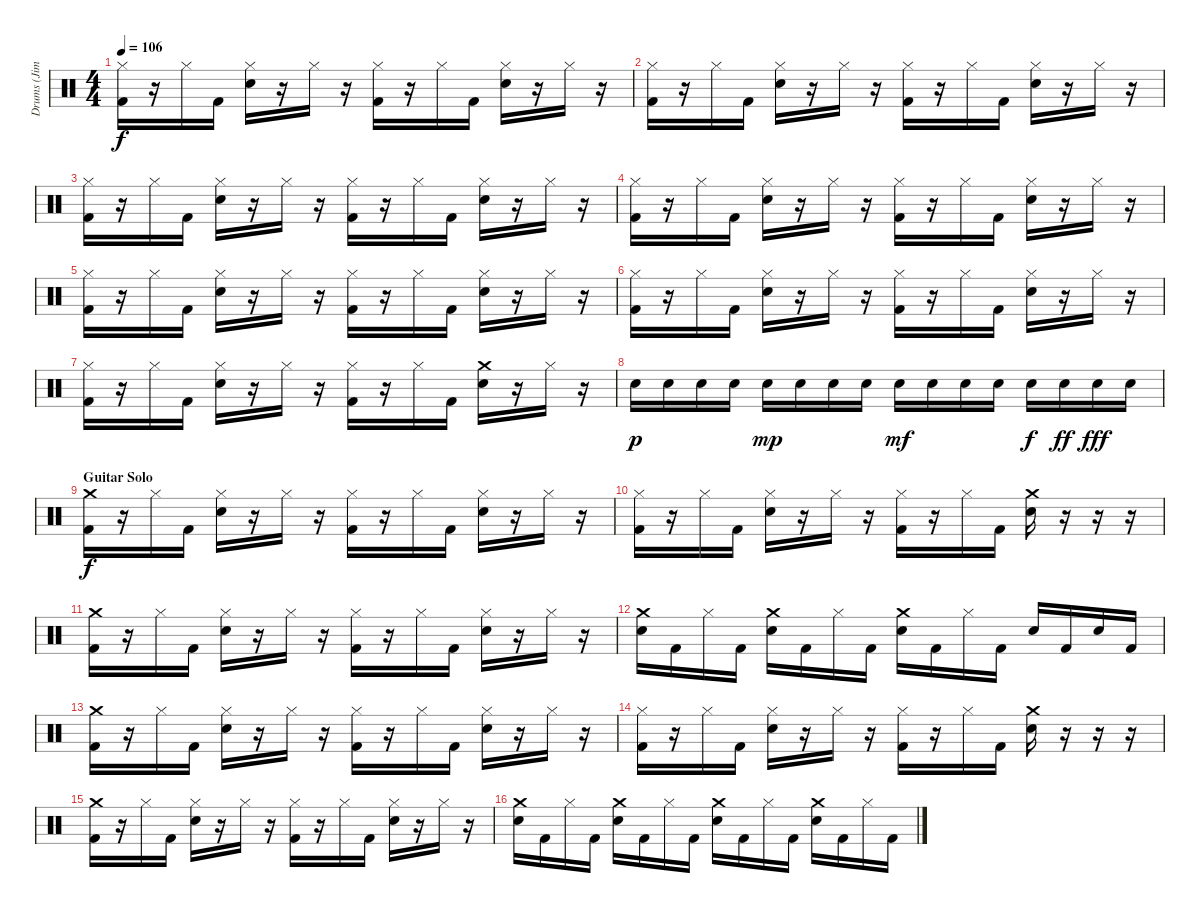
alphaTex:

\track ("Drums (Jimmy)" "Drums (Jim") {instrument percussion}
\staff {score}
\articulation defaults
\ts (4 4)
\tempo 106
\clef neutral
\ks c
("Hi-Hat (closed)" "Kick (hit) 2").16{dy f} r.16 "Hi-Hat (closed)".16 "Kick (hit) 2".16 ("Hi-Hat (closed)" "Snare (hit) 2").16 r.16 "Hi-Hat (closed)".16 r.16 ("Hi-Hat (closed)" "Kick (hit) 2").16 r.16 "Hi-Hat (closed)".16 "Kick (hit) 2".16 ("Hi-Hat (closed)" "Snare (hit) 2").16 r.16 "Hi-Hat (closed)".16 r.16 |
("Hi-Hat (closed)" "Kick (hit) 2").16 r.16 "Hi-Hat (closed)".16 "Kick (hit) 2".16 ("Hi-Hat (closed)" "Snare (hit) 2").16 r.16 "Hi-Hat (closed)".16 r.16 ("Hi-Hat (closed)" "Kick (hit) 2").16 r.16 "Hi-Hat (closed)".16 "Kick (hit) 2".16 ("Hi-Hat (closed)" "Snare (hit) 2").16 r.16 "Hi-Hat (closed)".16 r.16 |
("Hi-Hat (closed)" "Kick (hit) 2").16 r.16 "Hi-Hat (closed)".16 "Kick (hit) 2".16 ("Hi-Hat (closed)" "Snare (hit) 2").16 r.16 "Hi-Hat (closed)".16 r.16 ("Hi-Hat (closed)" "Kick (hit) 2").16 r.16 "Hi-Hat (closed)".16 "Kick (hit) 2".16 ("Hi-Hat (closed)" "Snare (hit) 2").16 r.16 "Hi-Hat (closed)".16 r.16 |
("Hi-Hat (closed)" "Kick (hit) 2").16 r.16 "Hi-Hat (closed)".16 "Kick (hit) 2".16 ("Hi-Hat (closed)" "Snare (hit) 2").16 r.16 "Hi-Hat (closed)".16 r.16 ("Hi-Hat (closed)" "Kick (hit) 2").16 r.16 "Hi-Hat (closed)".16 "Kick (hit) 2".16 ("Hi-Hat (closed)" "Snare (hit) 2").16 r.16 "Hi-Hat (closed)".16 r.16 |
("Hi-Hat (closed)" "Kick (hit) 2").16 r.16 "Hi-Hat (closed)".16 "Kick (hit) 2".16 ("Hi-Hat (closed)" "Snare (hit) 2").16 r.16 "Hi-Hat (closed)".16 r.16 ("Hi-Hat (closed)" "Kick (hit) 2").16 r.16 "Hi-Hat (closed)".16 "Kick (hit) 2".16 ("Hi-Hat (closed)" "Snare (hit) 2").16 r.16 "Hi-Hat (closed)".16 r.16 |
("Hi-Hat (closed)" "Kick (hit) 2").16 r.16 "Hi-Hat (closed)".16 "Kick (hit) 2".16 ("Hi-Hat (closed)" "Snare (hit) 2").16 r.16 "Hi-Hat (closed)".16 r.16 ("Hi-Hat (closed)" "Kick (hit) 2").16 r.16 "Hi-Hat (closed)".16 "Kick (hit) 2".16 ("Hi-Hat (closed)" "Snare (hit) 2").16 r.16 "Hi-Hat (closed)".16 r.16 |
("Hi-Hat (closed)" "Kick (hit) 2").16 r.16 "Hi-Hat (closed)".16 "Kick (hit) 2".16 ("Hi-Hat (closed)" "Snare (hit) 2").16 r.16 "Hi-Hat (closed)".16 r.16 ("Hi-Hat (closed)" "Kick (hit) 2").16 r.16 "Hi-Hat (closed)".16 "Kick (hit) 2".16 ("Crash medium (hit)" "Snare (hit) 2").16 r.16 "Hi-Hat (closed)".16 r.16 |
"Snare (hit) 2".16{dy p} "Snare (hit) 2".16 "Snare (hit) 2".16 "Snare (hit) 2".16 "Snare (hit) 2".16{dy mp} "Snare (hit) 2".16 "Snare (hit) 2".16 "Snare (hit) 2".16 "Snare (hit) 2".16{dy mf} "Snare (hit) 2".16 "Snare (hit) 2".16 "Snare (hit) 2".16 "Snare (hit) 2".16{dy f} "Snare (hit) 2".16{dy ff} "Snare (hit) 2".16{dy fff} "Snare (hit) 2".16 |
\section ("" "Guitar Solo")
("Crash medium (hit)" "Kick (hit) 2").16{dy f} r.16 "Hi-Hat (closed)".16 "Kick (hit) 2".16 ("Hi-Hat (closed)" "Snare (hit) 2").16 r.16 "Hi-Hat (closed)".16 r.16 ("Hi-Hat (closed)" "Kick (hit) 2").16 r.16 "Hi-Hat (closed)".16 "Kick (hit) 2".16 ("Hi-Hat (closed)" "Snare (hit) 2").16 r.16 "Hi-Hat (closed)".16 r.16 |
("Hi-Hat (closed)" "Kick (hit) 2").16 r.16 "Hi-Hat (closed)".16 "Kick (hit) 2".16 ("Hi-Hat (closed)" "Snare (hit) 2").16 r.16 "Hi-Hat (closed)".16 r.16 ("Hi-Hat (closed)" "Kick (hit) 2").16 r.16 "Hi-Hat (closed)".16 "Kick (hit) 2".16 ("Crash medium (hit)" "Snare (hit) 2").16 r.16 r.16 r.16 |
("Crash medium (hit)" "Kick (hit) 2").16 r.16 "Hi-Hat (closed)".16 "Kick (hit) 2".16 ("Hi-Hat (closed)" "Snare (hit) 2").16 r.16 "Hi-Hat (closed)".16 r.16 ("Hi-Hat (closed)" "Kick (hit) 2").16 r.16 "Hi-Hat (closed)".16 "Kick (hit) 2".16 ("Hi-Hat (closed)" "Snare (hit) 2").16 r.16 "Hi-Hat (closed)".16 r.16 |
("Crash medium (hit)" "Snare (hit) 2").16 "Kick (hit) 2".16 "Hi-Hat (closed)".16 "Kick (hit) 2".16 ("Crash medium (hit)" "Snare (hit) 2").16 "Kick (hit) 2".16 "Hi-Hat (closed)".16 "Kick (hit) 2".16 ("Crash medium (hit)" "Snare (hit) 2").16 "Kick (hit) 2".16 "Hi-Hat (closed)".16 "Kick (hit) 2".16 "Snare (hit) 2".16 "Kick (hit) 2".16 "Snare (hit) 2".16 "Kick (hit) 2".16 |
("Crash medium (hit)" "Kick (hit) 2").16 r.16 "Hi-Hat (closed)".16 "Kick (hit) 2".16 ("Hi-Hat (closed)" "Snare (hit) 2").16 r.16 "Hi-Hat (closed)".16 r.16 ("Hi-Hat (closed)" "Kick (hit) 2").16 r.16 "Hi-Hat (closed)".16 "Kick (hit) 2".16 ("Hi-Hat (closed)" "Snare (hit) 2").16 r.16 "Hi-Hat (closed)".16 r.16 |
("Hi-Hat (closed)" "Kick (hit) 2").16 r.16 "Hi-Hat (closed)".16 "Kick (hit) 2".16 ("Hi-Hat (closed)" "Snare (hit) 2").16 r.16 "Hi-Hat (closed)".16 r.16 ("Hi-Hat (closed)" "Kick (hit) 2").16 r.16 "Hi-Hat (closed)".16 "Kick (hit) 2".16 ("Crash medium (hit)" "Snare (hit) 2").16 r.16 r.16 r.16 |
("Crash medium (hit)" "Kick (hit) 2").16 r.16 "Hi-Hat (closed)".16 "Kick (hit) 2".16 ("Hi-Hat (closed)" "Snare (hit) 2").16 r.16 "Hi-Hat (closed)".16 r.16 ("Hi-Hat (closed)" "Kick (hit) 2").16 r.16 "Hi-Hat (closed)".16 "Kick (hit) 2".16 ("Hi-Hat (closed)" "Snare (hit) 2").16 r.16 "Hi-Hat (closed)".16 r.16 |
("Crash medium (hit)" "Snare (hit) 2").16 "Kick (hit) 2".16 "Hi-Hat (closed)".16 "Kick (hit) 2".16 ("Crash medium (hit)" "Snare (hit) 2").16 "Kick (hit) 2".16 "Hi-Hat (closed)".16 "Kick (hit) 2".16 ("Crash medium (hit)" "Snare (hit) 2").16 "Kick (hit) 2".16 "Hi-Hat (closed)".16 "Kick (hit) 2".16 ("Crash medium (hit)" "Snare (hit) 2").16 "Kick (hit) 2".16 "Hi-Hat (closed)".16 "Kick (hit) 2".16
